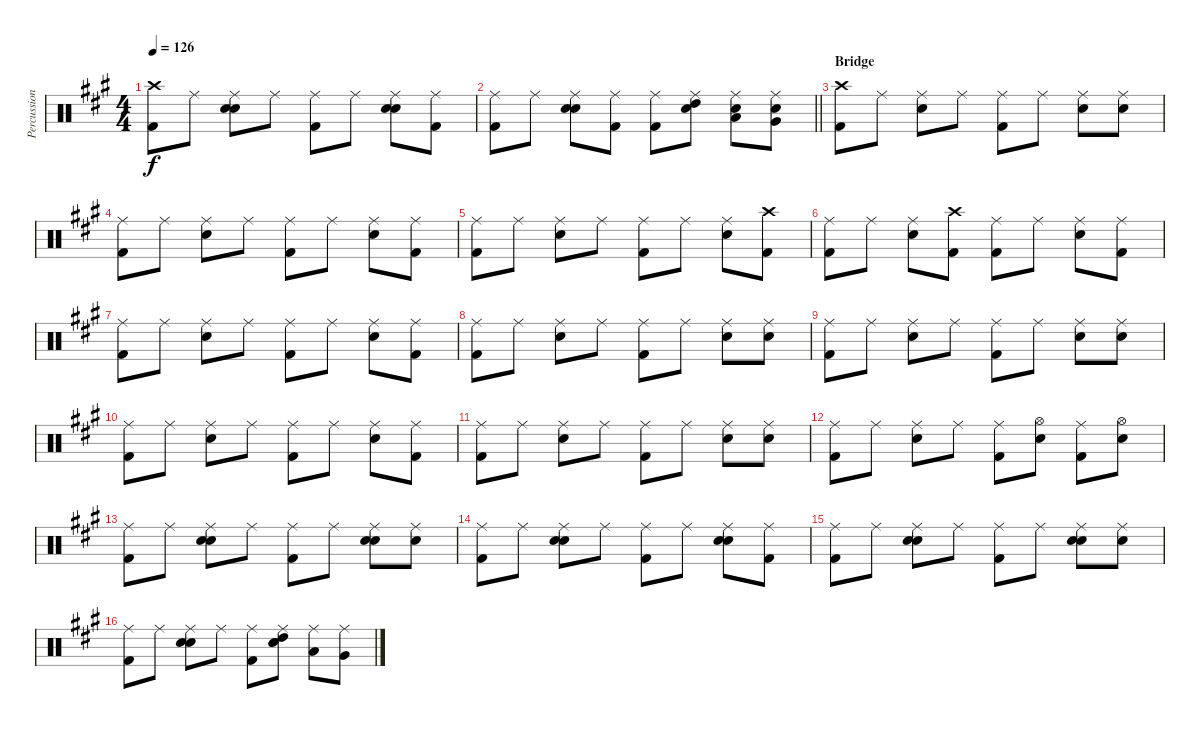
\track ("Percussion" "Percussion") {instrument percussion}
\staff {score}
\articulation defaults
\ts (4 4)
\tempo 126
\clef neutral
\ks a
("Crash high (hit)" "Kick (hit) 2").8{dy f} "Ride (middle)".8 ("Ride (middle)" "Hand Clap (hit)" "Snare (hit) 2").8 "Ride (middle)".8 ("Ride (middle)" "Kick (hit) 2").8 "Ride (middle)".8 ("Ride (middle)" "Hand Clap (hit)" "Snare (hit) 2").8 ("Ride (middle)" "Kick (hit) 2").8 |
\barLineRight lightlight
("Ride (middle)" "Kick (hit) 2").8 "Ride (middle)".8 ("Ride (middle)" "Hand Clap (hit)" "Snare (hit) 2").8 ("Ride (middle)" "Kick (hit) 2").8 ("Ride (middle)" "Kick (hit) 2").8 ("Ride (middle)" "High Tom (hit)" "Snare (hit) 2").8 ("Ride (middle)" "Low Tom (hit)" "Snare (hit) 2").8 ("Ride (middle)" "Very Low Tom (hit)" "Snare (hit) 2").8 |
\section ("" "Bridge")
("Crash high (hit)" "Kick (hit) 2").8 "Ride (middle)".8 ("Ride (middle)" "Snare (hit) 2").8 "Ride (middle)".8 ("Ride (middle)" "Kick (hit) 2").8 "Ride (middle)".8 ("Ride (middle)" "Snare (hit) 2").8 ("Ride (middle)" "Snare (hit) 2").8 |
("Ride (middle)" "Kick (hit) 2").8 "Ride (middle)".8 ("Ride (middle)" "Snare (hit) 2").8 "Ride (middle)".8 ("Ride (middle)" "Kick (hit) 2").8 "Ride (middle)".8 ("Ride (middle)" "Snare (hit) 2").8 ("Ride (middle)" "Kick (hit) 2").8 |
("Ride (middle)" "Kick (hit) 2").8 "Ride (middle)".8 ("Ride (middle)" "Snare (hit) 2").8 "Ride (middle)".8 ("Ride (middle)" "Kick (hit) 2").8 "Ride (middle)".8 ("Ride (middle)" "Snare (hit) 2").8 ("Crash high (hit)" "Kick (hit) 2").8 |
("Ride (middle)" "Kick (hit) 2").8 "Ride (middle)".8 ("Ride (middle)" "Snare (hit) 2").8 ("Crash high (hit)" "Kick (hit) 2").8 ("Ride (middle)" "Kick (hit) 2").8 "Ride (middle)".8 ("Ride (middle)" "Snare (hit) 2").8 ("Ride (middle)" "Kick (hit) 2").8 |
("Ride (middle)" "Kick (hit) 2").8 "Ride (middle)".8 ("Ride (middle)" "Snare (hit) 2").8 "Ride (middle)".8 ("Ride (middle)" "Kick (hit) 2").8 "Ride (middle)".8 ("Ride (middle)" "Snare (hit) 2").8 ("Ride (middle)" "Kick (hit) 2").8 |
("Ride (middle)" "Kick (hit) 2").8 "Ride (middle)".8 ("Ride (middle)" "Snare (hit) 2").8 "Ride (middle)".8 ("Ride (middle)" "Kick (hit) 2").8 "Ride (middle)".8 ("Ride (middle)" "Snare (hit) 2").8 ("Ride (middle)" "Snare (hit) 2").8 |
("Ride (middle)" "Kick (hit) 2").8 "Ride (middle)".8 ("Ride (middle)" "Snare (hit) 2").8 "Ride (middle)".8 ("Ride (middle)" "Kick (hit) 2").8 "Ride (middle)".8 ("Ride (middle)" "Snare (hit) 2").8 ("Ride (middle)" "Snare (hit) 2").8 |
("Ride (middle)" "Kick (hit) 2").8 "Ride (middle)".8 ("Ride (middle)" "Snare (hit) 2").8 "Ride (middle)".8 ("Ride (middle)" "Kick (hit) 2").8 "Ride (middle)".8 ("Ride (middle)" "Snare (hit) 2").8 ("Ride (middle)" "Kick (hit) 2").8 |
("Ride (middle)" "Kick (hit) 2").8 "Ride (middle)".8 ("Ride (middle)" "Snare (hit) 2").8 "Ride (middle)".8 ("Ride (middle)" "Kick (hit) 2").8 "Ride (middle)".8 ("Ride (middle)" "Snare (hit) 2").8 ("Ride (middle)" "Snare (hit) 2").8 |
("Ride (middle)" "Kick (hit) 2").8 "Ride (middle)".8 ("Ride (middle)" "Snare (hit) 2").8 "Ride (middle)".8 ("Ride (middle)" "Kick (hit) 2").8 ("Hi-Hat (open)" "Snare (hit) 2").8 ("Ride (middle)" "Kick (hit) 2").8 ("Hi-Hat (open)" "Snare (hit) 2").8 |
("Ride (middle)" "Kick (hit) 2").8 "Ride (middle)".8 ("Ride (middle)" "Hand Clap (hit)" "Snare (hit) 2").8 "Ride (middle)".8 ("Ride (middle)" "Kick (hit) 2").8 "Ride (middle)".8 ("Ride (middle)" "Hand Clap (hit)" "Snare (hit) 2").8 ("Ride (middle)" "Snare (hit) 2").8 |
("Ride (middle)" "Kick (hit) 2").8 "Ride (middle)".8 ("Ride (middle)" "Hand Clap (hit)" "Snare (hit) 2").8 "Ride (middle)".8 ("Ride (middle)" "Kick (hit) 2").8 "Ride (middle)".8 ("Ride (middle)" "Hand Clap (hit)" "Snare (hit) 2").8 ("Ride (middle)" "Kick (hit) 2").8 |
("Ride (middle)" "Kick (hit) 2").8 "Ride (middle)".8 ("Ride (middle)" "Hand Clap (hit)" "Snare (hit) 2").8 "Ride (middle)".8 ("Ride (middle)" "Kick (hit) 2").8 "Ride (middle)".8 ("Ride (middle)" "Hand Clap (hit)" "Snare (hit) 2").8 ("Ride (middle)" "Snare (hit) 2").8 |
("Ride (middle)" "Kick (hit) 2").8 "Ride (middle)".8 ("Ride (middle)" "Hand Clap (hit)" "Snare (hit) 2").8 "Ride (middle)".8 ("Ride (middle)" "Kick (hit) 2").8 ("Ride (middle)" "Hand Clap (hit)" "High Tom (hit)" "Snare (hit) 2").8 ("Ride (middle)" "Low Tom (hit)").8 ("Ride (middle)" "Very Low Tom (hit)").8
